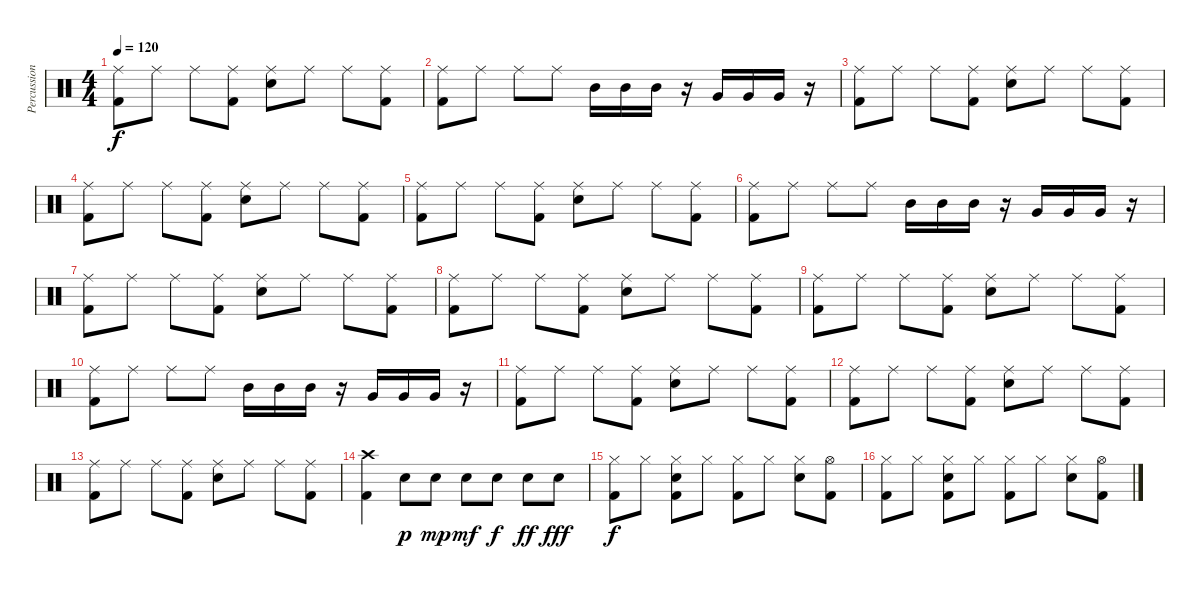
\track ("Percussions" "Percussion") {instrument percussion}
\staff {score}
\articulation defaults
\ts (4 4)
\tempo 120
\clef neutral
\ks c
("Ride (middle)" "Kick (hit) 2").8{dy f} "Ride (middle)".8 "Ride (middle)".8 ("Ride (middle)" "Kick (hit) 2").8 ("Ride (middle)" "Snare (hit) 2").8 "Ride (middle)".8 "Ride (middle)".8 ("Ride (middle)" "Kick (hit) 2").8 |
("Ride (middle)" "Kick (hit) 2").8 "Ride (middle)".8 "Ride (middle)".8 "Ride (middle)".8 "Mid Tom (hit)".16 "Mid Tom (hit)".16 "Mid Tom (hit)".16 r.16 "Very Low Tom (hit)".16 "Very Low Tom (hit)".16 "Very Low Tom (hit)".16 r.16 |
("Ride (middle)" "Kick (hit) 2").8 "Ride (middle)".8 "Ride (middle)".8 ("Ride (middle)" "Kick (hit) 2").8 ("Ride (middle)" "Snare (hit) 2").8 "Ride (middle)".8 "Ride (middle)".8 ("Ride (middle)" "Kick (hit) 2").8 |
("Ride (middle)" "Kick (hit) 2").8 "Ride (middle)".8 "Ride (middle)".8 ("Ride (middle)" "Kick (hit) 2").8 ("Ride (middle)" "Snare (hit) 2").8 "Ride (middle)".8 "Ride (middle)".8 ("Ride (middle)" "Kick (hit) 2").8 |
("Ride (middle)" "Kick (hit) 2").8 "Ride (middle)".8 "Ride (middle)".8 ("Ride (middle)" "Kick (hit) 2").8 ("Ride (middle)" "Snare (hit) 2").8 "Ride (middle)".8 "Ride (middle)".8 ("Ride (middle)" "Kick (hit) 2").8 |
("Ride (middle)" "Kick (hit) 2").8 "Ride (middle)".8 "Ride (middle)".8 "Ride (middle)".8 "Mid Tom (hit)".16 "Mid Tom (hit)".16 "Mid Tom (hit)".16 r.16 "Very Low Tom (hit)".16 "Very Low Tom (hit)".16 "Very Low Tom (hit)".16 r.16 |
("Ride (middle)" "Kick (hit) 2").8 "Ride (middle)".8 "Ride (middle)".8 ("Ride (middle)" "Kick (hit) 2").8 ("Ride (middle)" "Snare (hit) 2").8 "Ride (middle)".8 "Ride (middle)".8 ("Ride (middle)" "Kick (hit) 2").8 |
("Ride (middle)" "Kick (hit) 2").8 "Ride (middle)".8 "Ride (middle)".8 ("Ride (middle)" "Kick (hit) 2").8 ("Ride (middle)" "Snare (hit) 2").8 "Ride (middle)".8 "Ride (middle)".8 ("Ride (middle)" "Kick (hit) 2").8 |
("Ride (middle)" "Kick (hit) 2").8 "Ride (middle)".8 "Ride (middle)".8 ("Ride (middle)" "Kick (hit) 2").8 ("Ride (middle)" "Snare (hit) 2").8 "Ride (middle)".8 "Ride (middle)".8 ("Ride (middle)" "Kick (hit) 2").8 |
("Ride (middle)" "Kick (hit) 2").8 "Ride (middle)".8 "Ride (middle)".8 "Ride (middle)".8 "Mid Tom (hit)".16 "Mid Tom (hit)".16 "Mid Tom (hit)".16 r.16 "Very Low Tom (hit)".16 "Very Low Tom (hit)".16 "Very Low Tom (hit)".16 r.16 |
("Ride (middle)" "Kick (hit) 2").8 "Ride (middle)".8 "Ride (middle)".8 ("Ride (middle)" "Kick (hit) 2").8 ("Ride (middle)" "Snare (hit) 2").8 "Ride (middle)".8 "Ride (middle)".8 ("Ride (middle)" "Kick (hit) 2").8 |
("Ride (middle)" "Kick (hit) 2").8 "Ride (middle)".8 "Ride (middle)".8 ("Ride (middle)" "Kick (hit) 2").8 ("Ride (middle)" "Snare (hit) 2").8 "Ride (middle)".8 "Ride (middle)".8 ("Ride (middle)" "Kick (hit) 2").8 |
("Ride (middle)" "Kick (hit) 2").8 "Ride (middle)".8 "Ride (middle)".8 ("Ride (middle)" "Kick (hit) 2").8 ("Ride (middle)" "Snare (hit) 2").8 "Ride (middle)".8 "Ride (middle)".8 ("Ride (middle)" "Kick (hit) 2").8 |
("Crash high (hit)" "Kick (hit) 2").4 "Snare (hit) 2".8{dy p} "Snare (hit) 2".8{dy mp} "Snare (hit) 2".8{dy mf} "Snare (hit) 2".8{dy f} "Snare (hit) 2".8{dy ff} "Snare (hit) 2".8{dy fff} |
("Hi-Hat (closed)" "Kick (hit) 2").8{dy f} "Hi-Hat (closed)".8 ("Hi-Hat (closed)" "Snare (hit) 2" "Kick (hit) 2").8 "Hi-Hat (closed)".8 ("Hi-Hat (closed)" "Kick (hit) 2").8 "Hi-Hat (closed)".8 ("Hi-Hat (closed)" "Snare (hit) 2").8 ("Hi-Hat (open)" "Kick (hit) 2").8 |
("Hi-Hat (closed)" "Kick (hit) 2").8 "Hi-Hat (closed)".8 ("Hi-Hat (closed)" "Snare (hit) 2" "Kick (hit) 2").8 "Hi-Hat (closed)".8 ("Hi-Hat (closed)" "Kick (hit) 2").8 "Hi-Hat (closed)".8 ("Hi-Hat (closed)" "Snare (hit) 2").8 ("Hi-Hat (open)" "Kick (hit) 2").8
